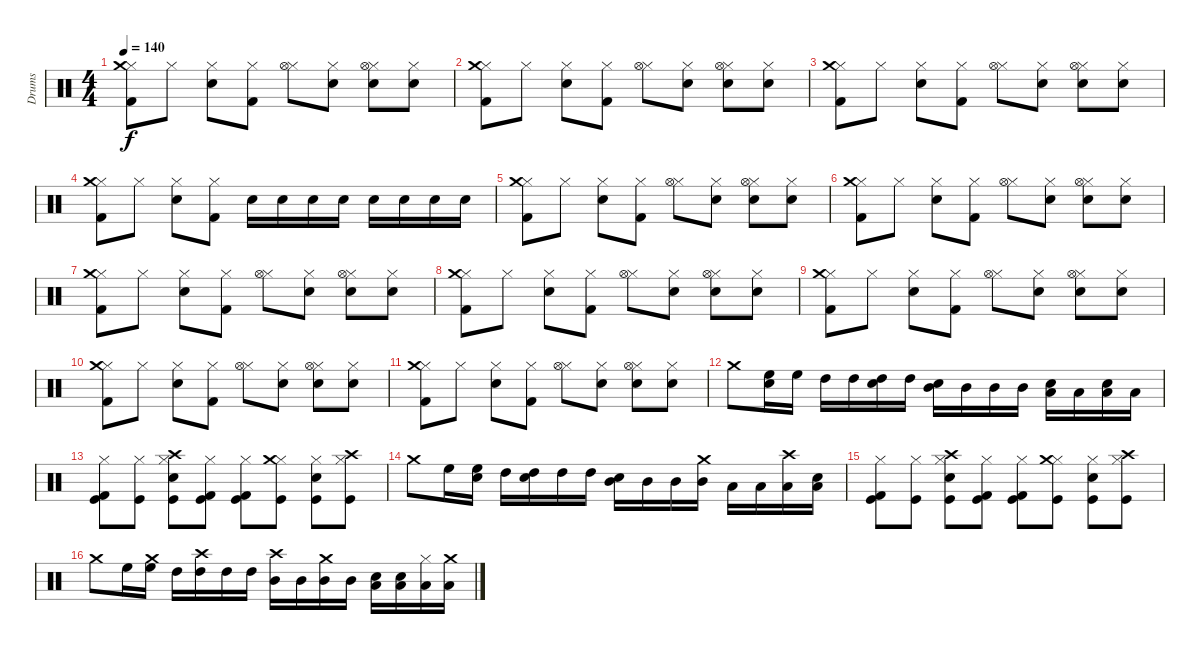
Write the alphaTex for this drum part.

\track ("Drums" "Drums") {instrument percussion}
\staff {score}
\articulation defaults
\ts (4 4)
\tempo 140
\clef neutral
\ks c
("Hi-Hat (closed)" "Kick (hit) 2" "Crash medium (hit)").8{dy f} "Hi-Hat (closed)".8 ("Hi-Hat (closed)" "Electric Snare (hit)").8 ("Hi-Hat (closed)" "Kick (hit) 2").8 ("Hi-Hat (closed)" "Hi-Hat (open)").8 ("Hi-Hat (closed)" "Electric Snare (hit)").8 ("Hi-Hat (closed)" "Electric Snare (hit)" "Hi-Hat (open)").8 ("Hi-Hat (closed)" "Electric Snare (hit)").8 |
("Hi-Hat (closed)" "Kick (hit) 2" "Crash medium (hit)").8 "Hi-Hat (closed)".8 ("Hi-Hat (closed)" "Electric Snare (hit)").8 ("Hi-Hat (closed)" "Kick (hit) 2").8 ("Hi-Hat (closed)" "Hi-Hat (open)").8 ("Hi-Hat (closed)" "Electric Snare (hit)").8 ("Hi-Hat (closed)" "Electric Snare (hit)" "Hi-Hat (open)").8 ("Hi-Hat (closed)" "Electric Snare (hit)").8 |
("Hi-Hat (closed)" "Kick (hit) 2" "Crash medium (hit)").8 "Hi-Hat (closed)".8 ("Hi-Hat (closed)" "Electric Snare (hit)").8 ("Hi-Hat (closed)" "Kick (hit) 2").8 ("Hi-Hat (closed)" "Hi-Hat (open)").8 ("Hi-Hat (closed)" "Electric Snare (hit)").8 ("Hi-Hat (closed)" "Electric Snare (hit)" "Hi-Hat (open)").8 ("Hi-Hat (closed)" "Electric Snare (hit)").8 |
("Hi-Hat (closed)" "Kick (hit) 2" "Crash medium (hit)").8 "Hi-Hat (closed)".8 ("Hi-Hat (closed)" "Electric Snare (hit)").8 ("Hi-Hat (closed)" "Kick (hit) 2").8 "Electric Snare (hit)".16 "Snare (hit) 2".16 "Electric Snare (hit)".16 "Snare (hit) 2".16 "Electric Snare (hit)".16 "Snare (hit) 2".16 "Electric Snare (hit)".16 "Snare (hit) 2".16 |
("Hi-Hat (closed)" "Kick (hit) 2" "Crash medium (hit)").8 "Hi-Hat (closed)".8 ("Hi-Hat (closed)" "Electric Snare (hit)").8 ("Hi-Hat (closed)" "Kick (hit) 2").8 ("Hi-Hat (closed)" "Hi-Hat (open)").8 ("Hi-Hat (closed)" "Electric Snare (hit)").8 ("Hi-Hat (closed)" "Electric Snare (hit)" "Hi-Hat (open)").8 ("Hi-Hat (closed)" "Electric Snare (hit)").8 |
("Hi-Hat (closed)" "Kick (hit) 2" "Crash medium (hit)").8 "Hi-Hat (closed)".8 ("Hi-Hat (closed)" "Electric Snare (hit)").8 ("Hi-Hat (closed)" "Kick (hit) 2").8 ("Hi-Hat (closed)" "Hi-Hat (open)").8 ("Hi-Hat (closed)" "Electric Snare (hit)").8 ("Hi-Hat (closed)" "Electric Snare (hit)" "Hi-Hat (open)").8 ("Hi-Hat (closed)" "Electric Snare (hit)").8 |
("Hi-Hat (closed)" "Kick (hit) 2" "Crash medium (hit)").8 "Hi-Hat (closed)".8 ("Hi-Hat (closed)" "Electric Snare (hit)").8 ("Hi-Hat (closed)" "Kick (hit) 2").8 ("Hi-Hat (closed)" "Hi-Hat (open)").8 ("Hi-Hat (closed)" "Electric Snare (hit)").8 ("Hi-Hat (closed)" "Electric Snare (hit)" "Hi-Hat (open)").8 ("Hi-Hat (closed)" "Electric Snare (hit)").8 |
("Hi-Hat (closed)" "Kick (hit) 2" "Crash medium (hit)").8 "Hi-Hat (closed)".8 ("Hi-Hat (closed)" "Electric Snare (hit)").8 ("Hi-Hat (closed)" "Kick (hit) 2").8 ("Hi-Hat (closed)" "Hi-Hat (open)").8 ("Hi-Hat (closed)" "Electric Snare (hit)").8 ("Hi-Hat (closed)" "Electric Snare (hit)" "Hi-Hat (open)").8 ("Hi-Hat (closed)" "Electric Snare (hit)").8 |
("Hi-Hat (closed)" "Kick (hit) 2" "Crash medium (hit)").8 "Hi-Hat (closed)".8 ("Hi-Hat (closed)" "Electric Snare (hit)").8 ("Hi-Hat (closed)" "Kick (hit) 2").8 ("Hi-Hat (closed)" "Hi-Hat (open)").8 ("Hi-Hat (closed)" "Electric Snare (hit)").8 ("Hi-Hat (closed)" "Electric Snare (hit)" "Hi-Hat (open)").8 ("Hi-Hat (closed)" "Electric Snare (hit)").8 |
("Hi-Hat (closed)" "Kick (hit) 2" "Crash medium (hit)").8 "Hi-Hat (closed)".8 ("Hi-Hat (closed)" "Electric Snare (hit)").8 ("Hi-Hat (closed)" "Kick (hit) 2").8 ("Hi-Hat (closed)" "Hi-Hat (open)").8 ("Hi-Hat (closed)" "Electric Snare (hit)").8 ("Hi-Hat (closed)" "Electric Snare (hit)" "Hi-Hat (open)").8 ("Hi-Hat (closed)" "Electric Snare (hit)").8 |
("Hi-Hat (closed)" "Kick (hit) 2" "Crash medium (hit)").8 "Hi-Hat (closed)".8 ("Hi-Hat (closed)" "Electric Snare (hit)").8 ("Hi-Hat (closed)" "Kick (hit) 2").8 ("Hi-Hat (closed)" "Hi-Hat (open)").8 ("Hi-Hat (closed)" "Electric Snare (hit)").8 ("Hi-Hat (closed)" "Electric Snare (hit)" "Hi-Hat (open)").8 ("Hi-Hat (closed)" "Electric Snare (hit)").8 |
"Crash medium (hit)".8 ("High Floor Tom (hit)" "Electric Snare (hit)").16 "High Floor Tom (hit)".16 "High Tom (hit)".16 "High Tom (hit)".16 ("High Tom (hit)" "Snare (hit) 2").16 "High Tom (hit)".16 ("Mid Tom (hit)" "Electric Snare (hit)").16 "Mid Tom (hit)".16 "Mid Tom (hit)".16 "Mid Tom (hit)".16 ("Low Tom (hit)" "Electric Snare (hit)").16 "Low Tom (hit)".16 ("Low Tom (hit)" "Electric Snare (hit)").16 "Low Tom (hit)".16 |
("Hi-Hat (closed)" "Kick (hit)" "Kick (hit) 2").8 ("Hi-Hat (closed)" "Kick (hit)").8 ("Hi-Hat (closed)" "Kick (hit)" "Electric Snare (hit)" "Crash high (hit)").8 ("Hi-Hat (closed)" "Kick (hit)" "Kick (hit) 2").8 ("Hi-Hat (closed)" "Kick (hit)" "Kick (hit) 2").8 ("Hi-Hat (closed)" "Kick (hit)" "Crash medium (hit)").8 ("Hi-Hat (closed)" "Kick (hit)" "Snare (hit) 2").8 ("Hi-Hat (closed)" "Kick (hit)" "Crash high (hit)").8 |
"Crash medium (hit)".8 "High Floor Tom (hit)".16 ("High Floor Tom (hit)" "Electric Snare (hit)").16 "High Tom (hit)".16 ("High Tom (hit)" "Snare (hit) 2").16 "High Tom (hit)".16 "High Tom (hit)".16 ("Mid Tom (hit)" "Electric Snare (hit)").16 "Mid Tom (hit)".16 "Mid Tom (hit)".16 ("Mid Tom (hit)" "Crash medium (hit)").16 "Low Tom (hit)".16 "Low Tom (hit)".16 ("Low Tom (hit)" "Crash high (hit)").16 ("Low Tom (hit)" "Electric Snare (hit)").16 |
("Hi-Hat (closed)" "Kick (hit)" "Kick (hit) 2").8 ("Hi-Hat (closed)" "Kick (hit)").8 ("Hi-Hat (closed)" "Kick (hit)" "Electric Snare (hit)" "Crash high (hit)").8 ("Hi-Hat (closed)" "Kick (hit)" "Kick (hit) 2").8 ("Hi-Hat (closed)" "Kick (hit)" "Kick (hit) 2").8 ("Hi-Hat (closed)" "Kick (hit)" "Crash medium (hit)").8 ("Hi-Hat (closed)" "Kick (hit)" "Snare (hit) 2").8 ("Hi-Hat (closed)" "Kick (hit)" "Crash high (hit)").8 |
"Crash medium (hit)".8 "High Floor Tom (hit)".16 ("High Floor Tom (hit)" "Crash medium (hit)").16 "High Tom (hit)".16 ("High Tom (hit)" "Crash high (hit)").16 "High Tom (hit)".16 "High Tom (hit)".16 ("Mid Tom (hit)" "Crash high (hit)").16 "Mid Tom (hit)".16 ("Mid Tom (hit)" "Crash medium (hit)").16 "Mid Tom (hit)".16 ("Low Tom (hit)" "Electric Snare (hit)").16 ("Low Tom (hit)" "Snare (hit) 2").16 ("Low Tom (hit)" "Hi-Hat (closed)").16 ("Low Tom (hit)" "Crash medium (hit)").16
